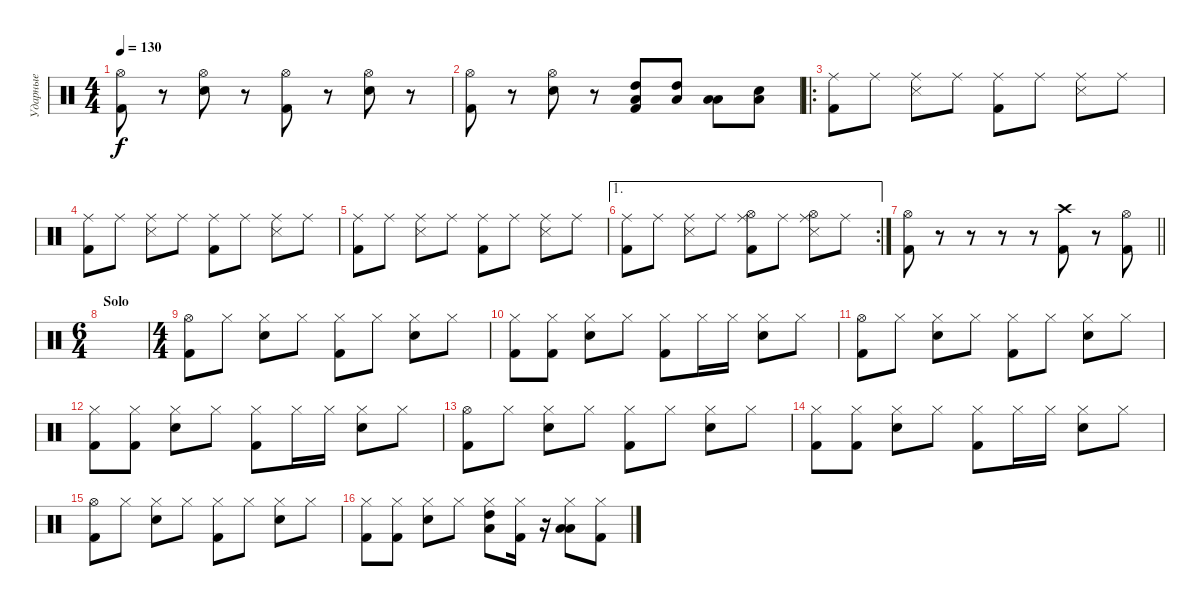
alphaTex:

\track ("Ударные" "Ударные") {instrument percussion}
\staff {score}
\articulation defaults
\ts (4 4)
\tempo 130
\clef neutral
\ks c
("Kick (hit) 2" "Hi-Hat (open)").8{dy f} r.8 ("Electric Snare (hit)" "Hi-Hat (open)").8 r.8 ("Kick (hit) 2" "Hi-Hat (open)").8 r.8 ("Electric Snare (hit)" "Hi-Hat (open)").8 r.8 |
("Kick (hit) 2" "Hi-Hat (open)").8 r.8 ("Electric Snare (hit)" "Hi-Hat (open)").8 r.8 ("Kick (hit) 2" "High Tom (hit)" "Low Floor Tom (hit)").8 ("High Tom (hit)" "Low Floor Tom (hit)").8 ("Low Tom (hit)" "Low Floor Tom (hit)").8 ("Snare (hit)" "Low Floor Tom (hit)").8 |
\ro
("Kick (hit) 2" "Ride (middle)").8 "Ride (middle)".8 ("Snare (side stick) 3" "Ride (middle)").8 "Ride (middle)".8 ("Kick (hit) 2" "Ride (middle)").8 "Ride (middle)".8 ("Snare (side stick) 3" "Ride (middle)").8 "Ride (middle)".8 |
("Kick (hit) 2" "Ride (middle)").8 "Ride (middle)".8 ("Snare (side stick) 3" "Ride (middle)").8 "Ride (middle)".8 ("Kick (hit) 2" "Ride (middle)").8 "Ride (middle)".8 ("Snare (side stick) 3" "Ride (middle)").8 "Ride (middle)".8 |
("Kick (hit) 2" "Ride (middle)").8 "Ride (middle)".8 ("Snare (side stick) 3" "Ride (middle)").8 "Ride (middle)".8 ("Kick (hit) 2" "Ride (middle)").8 "Ride (middle)".8 ("Snare (side stick) 3" "Ride (middle)").8 "Ride (middle)".8 |
\ae 1
\rc 2
("Kick (hit) 2" "Ride (middle)").8 "Ride (middle)".8 ("Snare (side stick) 3" "Ride (middle)").8 "Ride (middle)".8 ("Kick (hit) 2" "Hi-Hat (open)" "Ride (middle)").8 "Ride (middle)".8 ("Hi-Hat (open)" "Snare (side stick) 3" "Ride (middle)").8 "Ride (middle)".8 |
\barLineRight lightlight
("Kick (hit) 2" "Hi-Hat (open)").8 r.8 r.8 r.8 r.8 ("Kick (hit) 2" "Crash high (hit)").8 r.8 ("Kick (hit) 2" "Hi-Hat (open)").8 |
\ts (6 4)
\section ("" "Solo")
|
\ts (4 4)
("Kick (hit) 2" "Hi-Hat (open)").8 "Hi-Hat (closed)".8 ("Electric Snare (hit)" "Hi-Hat (closed)").8 "Hi-Hat (closed)".8 ("Kick (hit) 2" "Hi-Hat (closed)").8 "Hi-Hat (closed)".8 ("Electric Snare (hit)" "Hi-Hat (closed)").8 "Hi-Hat (closed)".8 |
("Kick (hit) 2" "Hi-Hat (closed)").8 ("Kick (hit) 2" "Hi-Hat (closed)").8 ("Electric Snare (hit)" "Hi-Hat (closed)").8 "Hi-Hat (closed)".8 ("Kick (hit) 2" "Hi-Hat (closed)").8 "Hi-Hat (closed)".16 "Hi-Hat (closed)".16 ("Electric Snare (hit)" "Hi-Hat (closed)").8 "Hi-Hat (closed)".8 |
("Kick (hit) 2" "Hi-Hat (open)").8 "Hi-Hat (closed)".8 ("Electric Snare (hit)" "Hi-Hat (closed)").8 "Hi-Hat (closed)".8 ("Kick (hit) 2" "Hi-Hat (closed)").8 "Hi-Hat (closed)".8 ("Electric Snare (hit)" "Hi-Hat (closed)").8 "Hi-Hat (closed)".8 |
("Kick (hit) 2" "Hi-Hat (closed)").8 ("Kick (hit) 2" "Hi-Hat (closed)").8 ("Electric Snare (hit)" "Hi-Hat (closed)").8 "Hi-Hat (closed)".8 ("Kick (hit) 2" "Hi-Hat (closed)").8 "Hi-Hat (closed)".16 "Hi-Hat (closed)".16 ("Electric Snare (hit)" "Hi-Hat (closed)").8 "Hi-Hat (closed)".8 |
("Kick (hit) 2" "Hi-Hat (open)").8 "Hi-Hat (closed)".8 ("Electric Snare (hit)" "Hi-Hat (closed)").8 "Hi-Hat (closed)".8 ("Kick (hit) 2" "Hi-Hat (closed)").8 "Hi-Hat (closed)".8 ("Electric Snare (hit)" "Hi-Hat (closed)").8 "Hi-Hat (closed)".8 |
("Kick (hit) 2" "Hi-Hat (closed)").8 ("Kick (hit) 2" "Hi-Hat (closed)").8 ("Electric Snare (hit)" "Hi-Hat (closed)").8 "Hi-Hat (closed)".8 ("Kick (hit) 2" "Hi-Hat (closed)").8 "Hi-Hat (closed)".16 "Hi-Hat (closed)".16 ("Electric Snare (hit)" "Hi-Hat (closed)").8 "Hi-Hat (closed)".8 |
("Kick (hit) 2" "Hi-Hat (open)").8 "Hi-Hat (closed)".8 ("Electric Snare (hit)" "Hi-Hat (closed)").8 "Hi-Hat (closed)".8 ("Kick (hit) 2" "Hi-Hat (closed)").8 "Hi-Hat (closed)".8 ("Electric Snare (hit)" "Hi-Hat (closed)").8 "Hi-Hat (closed)".8 |
("Kick (hit) 2" "Hi-Hat (closed)").8 ("Kick (hit) 2" "Hi-Hat (closed)").8 ("Electric Snare (hit)" "Hi-Hat (closed)").8 "Hi-Hat (closed)".8 ("High Tom (hit)" "Low Floor Tom (hit)" "Hi-Hat (closed)").8 ("Kick (hit) 2" "Hi-Hat (closed)").16 r.16 ("Low Tom (hit)" "Low Floor Tom (hit)" "Hi-Hat (closed)").8 ("Kick (hit) 2" "Hi-Hat (closed)").8
